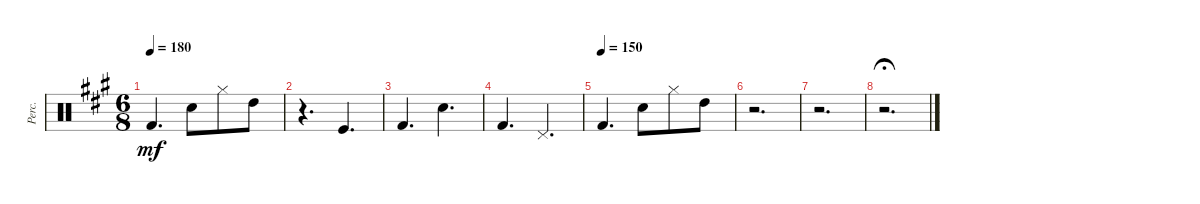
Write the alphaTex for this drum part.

\defaultSystemsLayout 4
\bracketExtendMode groupsimilarinstruments
\otherSystemsTrackNameOrientation horizontal
\track ("Percussions" "Perc.") {instrument percussion}
\staff {score}
\articulation defaults
\ts (6 8)
\tempo 180
\clef neutral
\ks f#minor "Kick (hit) 2"{acc forcenatural}.4{d dy mf beam Up} "Snare (hit) 2"{acc forcenatural}.8{beam Down} "Hi-Hat (closed)"{acc forcenatural}.8{beam Down} "High Tom (hit)"{acc forcenatural}.8{beam Down}
|
r.4{d beam Down} "Kick (hit)"{acc forcenatural}.4{d beam Up} |
"Kick (hit) 2"{acc forcenatural}.4{d beam Up} "Snare (hit) 2"{acc forcenatural}.4{d beam Down} |
"Kick (hit) 2"{acc forcenatural}.4{d beam Up} "Pedal Hi-Hat (hit)"{acc forcenatural}.4{d beam Up} |
\tempo (150)
"Kick (hit) 2"{acc forcenatural}.4{d beam Up} "Snare (hit) 2"{acc forcenatural}.8{beam Down} "Hi-Hat (closed)"{acc forcenatural}.8{beam Down} "High Tom (hit)"{acc forcenatural}.8{beam Down} |
r.2{d beam Down} |
r.2{d beam Down} |
r.2{d fermata (medium 1) beam Down}
